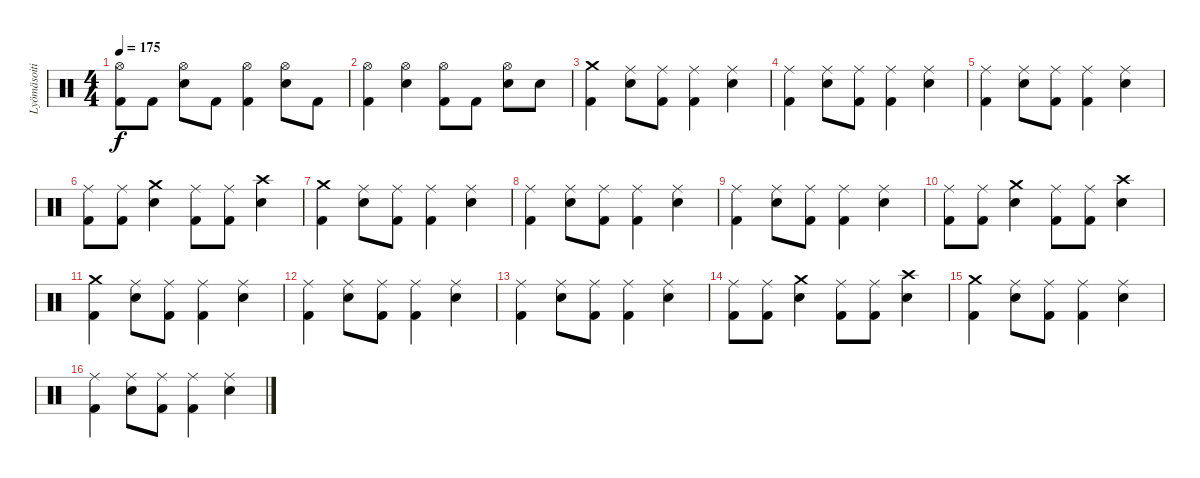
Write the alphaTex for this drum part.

\track ("Lyömäsoitin" "Lyömäsoiti") {instrument percussion}
\staff {score}
\articulation defaults
\ts (4 4)
\tempo 175
\clef neutral
\ks c
("Hi-Hat (open)" "Kick (hit) 2").8{dy f} "Kick (hit) 2".8 ("Hi-Hat (open)" "Snare (hit) 2").8 "Kick (hit) 2".8 ("Hi-Hat (open)" "Kick (hit) 2").4 ("Hi-Hat (open)" "Snare (hit) 2").8 "Kick (hit) 2".8 |
("Hi-Hat (open)" "Kick (hit) 2").4 ("Hi-Hat (open)" "Snare (hit) 2").4 ("Hi-Hat (open)" "Kick (hit) 2").8 "Kick (hit) 2".8 ("Hi-Hat (open)" "Snare (hit) 2").8 "Snare (hit) 2".8 |
("Crash medium (hit)" "Kick (hit) 2").4 ("Ride (middle)" "Snare (hit) 2").8 ("Ride (middle)" "Kick (hit) 2").8 ("Ride (middle)" "Kick (hit) 2").4 ("Ride (middle)" "Snare (hit) 2").4 |
("Ride (middle)" "Kick (hit) 2").4 ("Ride (middle)" "Snare (hit) 2").8 ("Ride (middle)" "Kick (hit) 2").8 ("Ride (middle)" "Kick (hit) 2").4 ("Ride (middle)" "Snare (hit) 2").4 |
("Ride (middle)" "Kick (hit) 2").4 ("Ride (middle)" "Snare (hit) 2").8 ("Ride (middle)" "Kick (hit) 2").8 ("Ride (middle)" "Kick (hit) 2").4 ("Ride (middle)" "Snare (hit) 2").4 |
("Ride (middle)" "Kick (hit) 2").8 ("Ride (middle)" "Kick (hit) 2").8 ("Crash medium (hit)" "Snare (hit) 2").4 ("Ride (middle)" "Kick (hit) 2").8 ("Ride (middle)" "Kick (hit) 2").8 ("Crash high (hit)" "Snare (hit) 2").4 |
("Crash medium (hit)" "Kick (hit) 2").4 ("Ride (middle)" "Snare (hit) 2").8 ("Ride (middle)" "Kick (hit) 2").8 ("Ride (middle)" "Kick (hit) 2").4 ("Ride (middle)" "Snare (hit) 2").4 |
("Ride (middle)" "Kick (hit) 2").4 ("Ride (middle)" "Snare (hit) 2").8 ("Ride (middle)" "Kick (hit) 2").8 ("Ride (middle)" "Kick (hit) 2").4 ("Ride (middle)" "Snare (hit) 2").4 |
("Ride (middle)" "Kick (hit) 2").4 ("Ride (middle)" "Snare (hit) 2").8 ("Ride (middle)" "Kick (hit) 2").8 ("Ride (middle)" "Kick (hit) 2").4 ("Ride (middle)" "Snare (hit) 2").4 |
("Ride (middle)" "Kick (hit) 2").8 ("Ride (middle)" "Kick (hit) 2").8 ("Crash medium (hit)" "Snare (hit) 2").4 ("Ride (middle)" "Kick (hit) 2").8 ("Ride (middle)" "Kick (hit) 2").8 ("Crash high (hit)" "Snare (hit) 2").4 |
("Crash medium (hit)" "Kick (hit) 2").4 ("Ride (middle)" "Snare (hit) 2").8 ("Ride (middle)" "Kick (hit) 2").8 ("Ride (middle)" "Kick (hit) 2").4 ("Ride (middle)" "Snare (hit) 2").4 |
("Ride (middle)" "Kick (hit) 2").4 ("Ride (middle)" "Snare (hit) 2").8 ("Ride (middle)" "Kick (hit) 2").8 ("Ride (middle)" "Kick (hit) 2").4 ("Ride (middle)" "Snare (hit) 2").4 |
("Ride (middle)" "Kick (hit) 2").4 ("Ride (middle)" "Snare (hit) 2").8 ("Ride (middle)" "Kick (hit) 2").8 ("Ride (middle)" "Kick (hit) 2").4 ("Ride (middle)" "Snare (hit) 2").4 |
("Ride (middle)" "Kick (hit) 2").8 ("Ride (middle)" "Kick (hit) 2").8 ("Crash medium (hit)" "Snare (hit) 2").4 ("Ride (middle)" "Kick (hit) 2").8 ("Ride (middle)" "Kick (hit) 2").8 ("Crash high (hit)" "Snare (hit) 2").4 |
("Crash medium (hit)" "Kick (hit) 2").4 ("Ride (middle)" "Snare (hit) 2").8 ("Ride (middle)" "Kick (hit) 2").8 ("Ride (middle)" "Kick (hit) 2").4 ("Ride (middle)" "Snare (hit) 2").4 |
("Ride (middle)" "Kick (hit) 2").4 ("Ride (middle)" "Snare (hit) 2").8 ("Ride (middle)" "Kick (hit) 2").8 ("Ride (middle)" "Kick (hit) 2").4 ("Ride (middle)" "Snare (hit) 2").4
